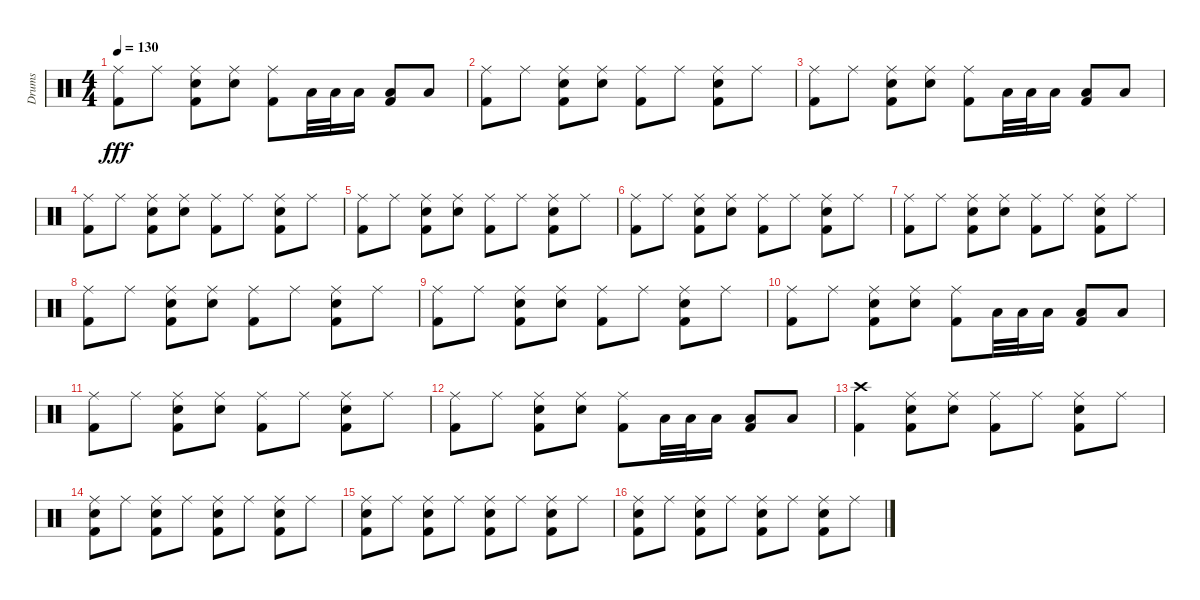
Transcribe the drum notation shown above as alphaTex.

\track ("Drums" "Drums") {instrument percussion}
\staff {score}
\articulation defaults
\ts (4 4)
\tempo 130
\clef neutral
\ks c
("Kick (hit) 2" "Ride (middle)").8{dy fff} "Ride (middle)".8 ("Kick (hit) 2" "Snare (hit) 2" "Ride (middle)").8 ("Snare (hit) 2" "Ride (middle)").8 ("Kick (hit) 2" "Ride (middle)").8 "Low Floor Tom (hit)".32 "Low Floor Tom (hit)".32 "Low Floor Tom (hit)".16 ("Kick (hit) 2" "Low Floor Tom (hit)").8 "Low Floor Tom (hit)".8 |
("Kick (hit) 2" "Ride (middle)").8 "Ride (middle)".8 ("Kick (hit) 2" "Snare (hit) 2" "Ride (middle)").8 ("Snare (hit) 2" "Ride (middle)").8 ("Kick (hit) 2" "Ride (middle)").8 "Ride (middle)".8 ("Kick (hit) 2" "Snare (hit) 2" "Ride (middle)").8 "Ride (middle)".8 |
("Kick (hit) 2" "Ride (middle)").8 "Ride (middle)".8 ("Kick (hit) 2" "Snare (hit) 2" "Ride (middle)").8 ("Snare (hit) 2" "Ride (middle)").8 ("Kick (hit) 2" "Ride (middle)").8 "Low Floor Tom (hit)".32 "Low Floor Tom (hit)".32 "Low Floor Tom (hit)".16 ("Kick (hit) 2" "Low Floor Tom (hit)").8 "Low Floor Tom (hit)".8 |
("Kick (hit) 2" "Ride (middle)").8 "Ride (middle)".8 ("Kick (hit) 2" "Snare (hit) 2" "Ride (middle)").8 ("Snare (hit) 2" "Ride (middle)").8 ("Kick (hit) 2" "Ride (middle)").8 "Ride (middle)".8 ("Kick (hit) 2" "Snare (hit) 2" "Ride (middle)").8 "Ride (middle)".8 |
("Kick (hit) 2" "Ride (middle)").8 "Ride (middle)".8 ("Kick (hit) 2" "Snare (hit) 2" "Ride (middle)").8 ("Snare (hit) 2" "Ride (middle)").8 ("Kick (hit) 2" "Ride (middle)").8 "Ride (middle)".8 ("Kick (hit) 2" "Snare (hit) 2" "Ride (middle)").8 "Ride (middle)".8 |
("Kick (hit) 2" "Ride (middle)").8 "Ride (middle)".8 ("Kick (hit) 2" "Snare (hit) 2" "Ride (middle)").8 ("Snare (hit) 2" "Ride (middle)").8 ("Kick (hit) 2" "Ride (middle)").8 "Ride (middle)".8 ("Kick (hit) 2" "Snare (hit) 2" "Ride (middle)").8 "Ride (middle)".8 |
("Kick (hit) 2" "Ride (middle)").8 "Ride (middle)".8 ("Kick (hit) 2" "Snare (hit) 2" "Ride (middle)").8 ("Snare (hit) 2" "Ride (middle)").8 ("Kick (hit) 2" "Ride (middle)").8 "Ride (middle)".8 ("Kick (hit) 2" "Snare (hit) 2" "Ride (middle)").8 "Ride (middle)".8 |
("Kick (hit) 2" "Ride (middle)").8 "Ride (middle)".8 ("Kick (hit) 2" "Snare (hit) 2" "Ride (middle)").8 ("Snare (hit) 2" "Ride (middle)").8 ("Kick (hit) 2" "Ride (middle)").8 "Ride (middle)".8 ("Kick (hit) 2" "Snare (hit) 2" "Ride (middle)").8 "Ride (middle)".8 |
("Kick (hit) 2" "Ride (middle)").8 "Ride (middle)".8 ("Kick (hit) 2" "Snare (hit) 2" "Ride (middle)").8 ("Snare (hit) 2" "Ride (middle)").8 ("Kick (hit) 2" "Ride (middle)").8 "Ride (middle)".8 ("Kick (hit) 2" "Snare (hit) 2" "Ride (middle)").8 "Ride (middle)".8 |
("Kick (hit) 2" "Ride (middle)").8 "Ride (middle)".8 ("Kick (hit) 2" "Snare (hit) 2" "Ride (middle)").8 ("Snare (hit) 2" "Ride (middle)").8 ("Kick (hit) 2" "Ride (middle)").8 "Low Floor Tom (hit)".32 "Low Floor Tom (hit)".32 "Low Floor Tom (hit)".16 ("Kick (hit) 2" "Low Floor Tom (hit)").8 "Low Floor Tom (hit)".8 |
("Kick (hit) 2" "Ride (middle)").8 "Ride (middle)".8 ("Kick (hit) 2" "Snare (hit) 2" "Ride (middle)").8 ("Snare (hit) 2" "Ride (middle)").8 ("Kick (hit) 2" "Ride (middle)").8 "Ride (middle)".8 ("Kick (hit) 2" "Snare (hit) 2" "Ride (middle)").8 "Ride (middle)".8 |
("Kick (hit) 2" "Ride (middle)").8 "Ride (middle)".8 ("Kick (hit) 2" "Snare (hit) 2" "Ride (middle)").8 ("Snare (hit) 2" "Ride (middle)").8 ("Kick (hit) 2" "Ride (middle)").8 "Low Floor Tom (hit)".32 "Low Floor Tom (hit)".32 "Low Floor Tom (hit)".16 ("Kick (hit) 2" "Low Floor Tom (hit)").8 "Low Floor Tom (hit)".8 |
("Kick (hit) 2" "Crash high (hit)").4 ("Kick (hit) 2" "Snare (hit) 2" "Ride (middle)").8 ("Snare (hit) 2" "Ride (middle)").8 ("Kick (hit) 2" "Ride (middle)").8 "Ride (middle)".8 ("Kick (hit) 2" "Snare (hit) 2" "Ride (middle)").8 "Ride (middle)".8 |
("Kick (hit) 2" "Snare (hit) 2" "Ride (middle)").8 "Ride (middle)".8 ("Kick (hit) 2" "Snare (hit) 2" "Ride (middle)").8 "Ride (middle)".8 ("Kick (hit) 2" "Snare (hit) 2" "Ride (middle)").8 "Ride (middle)".8 ("Kick (hit) 2" "Snare (hit) 2" "Ride (middle)").8 "Ride (middle)".8 |
("Kick (hit) 2" "Snare (hit) 2" "Ride (middle)").8 "Ride (middle)".8 ("Kick (hit) 2" "Snare (hit) 2" "Ride (middle)").8 "Ride (middle)".8 ("Kick (hit) 2" "Snare (hit) 2" "Ride (middle)").8 "Ride (middle)".8 ("Kick (hit) 2" "Snare (hit) 2" "Ride (middle)").8 "Ride (middle)".8 |
("Kick (hit) 2" "Snare (hit) 2" "Ride (middle)").8 "Ride (middle)".8 ("Kick (hit) 2" "Snare (hit) 2" "Ride (middle)").8 "Ride (middle)".8 ("Kick (hit) 2" "Snare (hit) 2" "Ride (middle)").8 "Ride (middle)".8 ("Kick (hit) 2" "Snare (hit) 2" "Ride (middle)").8 "Ride (middle)".8
